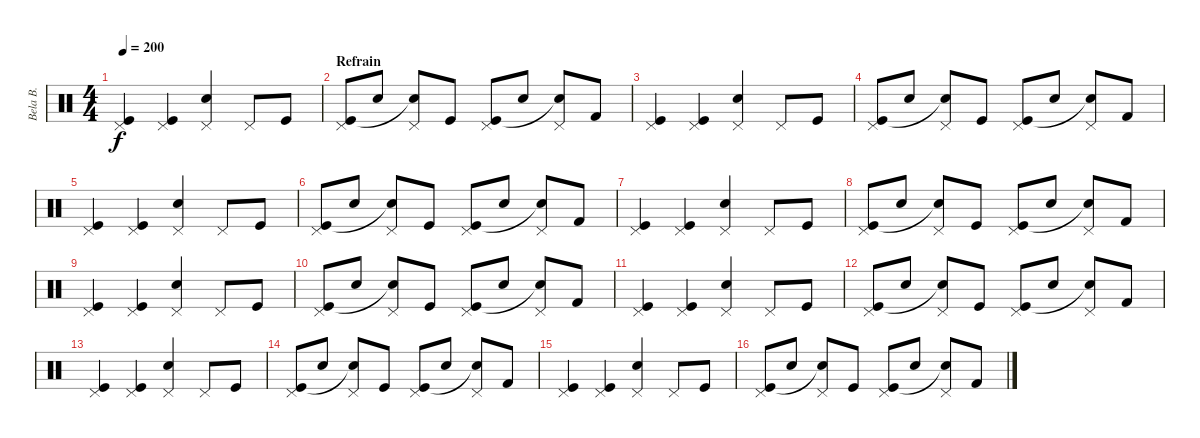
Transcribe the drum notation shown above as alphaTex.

\track ("Bela B. " "Bela B. ") {instrument percussion}
\staff {score}
\articulation defaults
\ts (4 4)
\tempo 200
\clef neutral
\ks c
("Pedal Hi-Hat (hit)" "Kick (hit)").4{dy f} ("Pedal Hi-Hat (hit)" "Kick (hit)").4 ("Pedal Hi-Hat (hit)" "Snare (hit) 2").4 "Pedal Hi-Hat (hit)".8 "Kick (hit)".8 |
\section ("" "Refrain")
("Pedal Hi-Hat (hit)" "Kick (hit)").8 "Snare (hit) 2".8 ("Pedal Hi-Hat (hit)" "Electric Snare (hit)"{t}).8 "Kick (hit)".8 ("Pedal Hi-Hat (hit)" "Kick (hit)").8 "Snare (hit) 2".8 ("Pedal Hi-Hat (hit)" "Electric Snare (hit)"{t}).8 "Kick (hit) 2".8 |
("Pedal Hi-Hat (hit)" "Kick (hit)").4 ("Pedal Hi-Hat (hit)" "Kick (hit)").4 ("Pedal Hi-Hat (hit)" "Snare (hit) 2").4 "Pedal Hi-Hat (hit)".8 "Kick (hit)".8 |
("Pedal Hi-Hat (hit)" "Kick (hit)").8 "Snare (hit) 2".8 ("Pedal Hi-Hat (hit)" "Electric Snare (hit)"{t}).8 "Kick (hit)".8 ("Pedal Hi-Hat (hit)" "Kick (hit)").8 "Snare (hit) 2".8 ("Pedal Hi-Hat (hit)" "Electric Snare (hit)"{t}).8 "Kick (hit) 2".8 |
("Pedal Hi-Hat (hit)" "Kick (hit)").4 ("Pedal Hi-Hat (hit)" "Kick (hit)").4 ("Pedal Hi-Hat (hit)" "Snare (hit) 2").4 "Pedal Hi-Hat (hit)".8 "Kick (hit)".8 |
("Pedal Hi-Hat (hit)" "Kick (hit)").8 "Snare (hit) 2".8 ("Pedal Hi-Hat (hit)" "Electric Snare (hit)"{t}).8 "Kick (hit)".8 ("Pedal Hi-Hat (hit)" "Kick (hit)").8 "Snare (hit) 2".8 ("Pedal Hi-Hat (hit)" "Electric Snare (hit)"{t}).8 "Kick (hit) 2".8 |
("Pedal Hi-Hat (hit)" "Kick (hit)").4 ("Pedal Hi-Hat (hit)" "Kick (hit)").4 ("Pedal Hi-Hat (hit)" "Snare (hit) 2").4 "Pedal Hi-Hat (hit)".8 "Kick (hit)".8 |
("Pedal Hi-Hat (hit)" "Kick (hit)").8 "Snare (hit) 2".8 ("Pedal Hi-Hat (hit)" "Electric Snare (hit)"{t}).8 "Kick (hit)".8 ("Pedal Hi-Hat (hit)" "Kick (hit)").8 "Snare (hit) 2".8 ("Pedal Hi-Hat (hit)" "Electric Snare (hit)"{t}).8 "Kick (hit) 2".8 |
("Pedal Hi-Hat (hit)" "Kick (hit)").4 ("Pedal Hi-Hat (hit)" "Kick (hit)").4 ("Pedal Hi-Hat (hit)" "Snare (hit) 2").4 "Pedal Hi-Hat (hit)".8 "Kick (hit)".8 |
("Pedal Hi-Hat (hit)" "Kick (hit)").8 "Snare (hit) 2".8 ("Pedal Hi-Hat (hit)" "Electric Snare (hit)"{t}).8 "Kick (hit)".8 ("Pedal Hi-Hat (hit)" "Kick (hit)").8 "Snare (hit) 2".8 ("Pedal Hi-Hat (hit)" "Electric Snare (hit)"{t}).8 "Kick (hit) 2".8 |
("Pedal Hi-Hat (hit)" "Kick (hit)").4 ("Pedal Hi-Hat (hit)" "Kick (hit)").4 ("Pedal Hi-Hat (hit)" "Snare (hit) 2").4 "Pedal Hi-Hat (hit)".8 "Kick (hit)".8 |
("Pedal Hi-Hat (hit)" "Kick (hit)").8 "Snare (hit) 2".8 ("Pedal Hi-Hat (hit)" "Electric Snare (hit)"{t}).8 "Kick (hit)".8 ("Pedal Hi-Hat (hit)" "Kick (hit)").8 "Snare (hit) 2".8 ("Pedal Hi-Hat (hit)" "Electric Snare (hit)"{t}).8 "Kick (hit) 2".8 |
("Pedal Hi-Hat (hit)" "Kick (hit)").4 ("Pedal Hi-Hat (hit)" "Kick (hit)").4 ("Pedal Hi-Hat (hit)" "Snare (hit) 2").4 "Pedal Hi-Hat (hit)".8 "Kick (hit)".8 |
("Pedal Hi-Hat (hit)" "Kick (hit)").8 "Snare (hit) 2".8 ("Pedal Hi-Hat (hit)" "Electric Snare (hit)"{t}).8 "Kick (hit)".8 ("Pedal Hi-Hat (hit)" "Kick (hit)").8 "Snare (hit) 2".8 ("Pedal Hi-Hat (hit)" "Electric Snare (hit)"{t}).8 "Kick (hit) 2".8 |
("Pedal Hi-Hat (hit)" "Kick (hit)").4 ("Pedal Hi-Hat (hit)" "Kick (hit)").4 ("Pedal Hi-Hat (hit)" "Snare (hit) 2").4 "Pedal Hi-Hat (hit)".8 "Kick (hit)".8 |
("Pedal Hi-Hat (hit)" "Kick (hit)").8 "Snare (hit) 2".8 ("Pedal Hi-Hat (hit)" "Electric Snare (hit)"{t}).8 "Kick (hit)".8 ("Pedal Hi-Hat (hit)" "Kick (hit)").8 "Snare (hit) 2".8 ("Pedal Hi-Hat (hit)" "Electric Snare (hit)"{t}).8 "Kick (hit) 2".8
